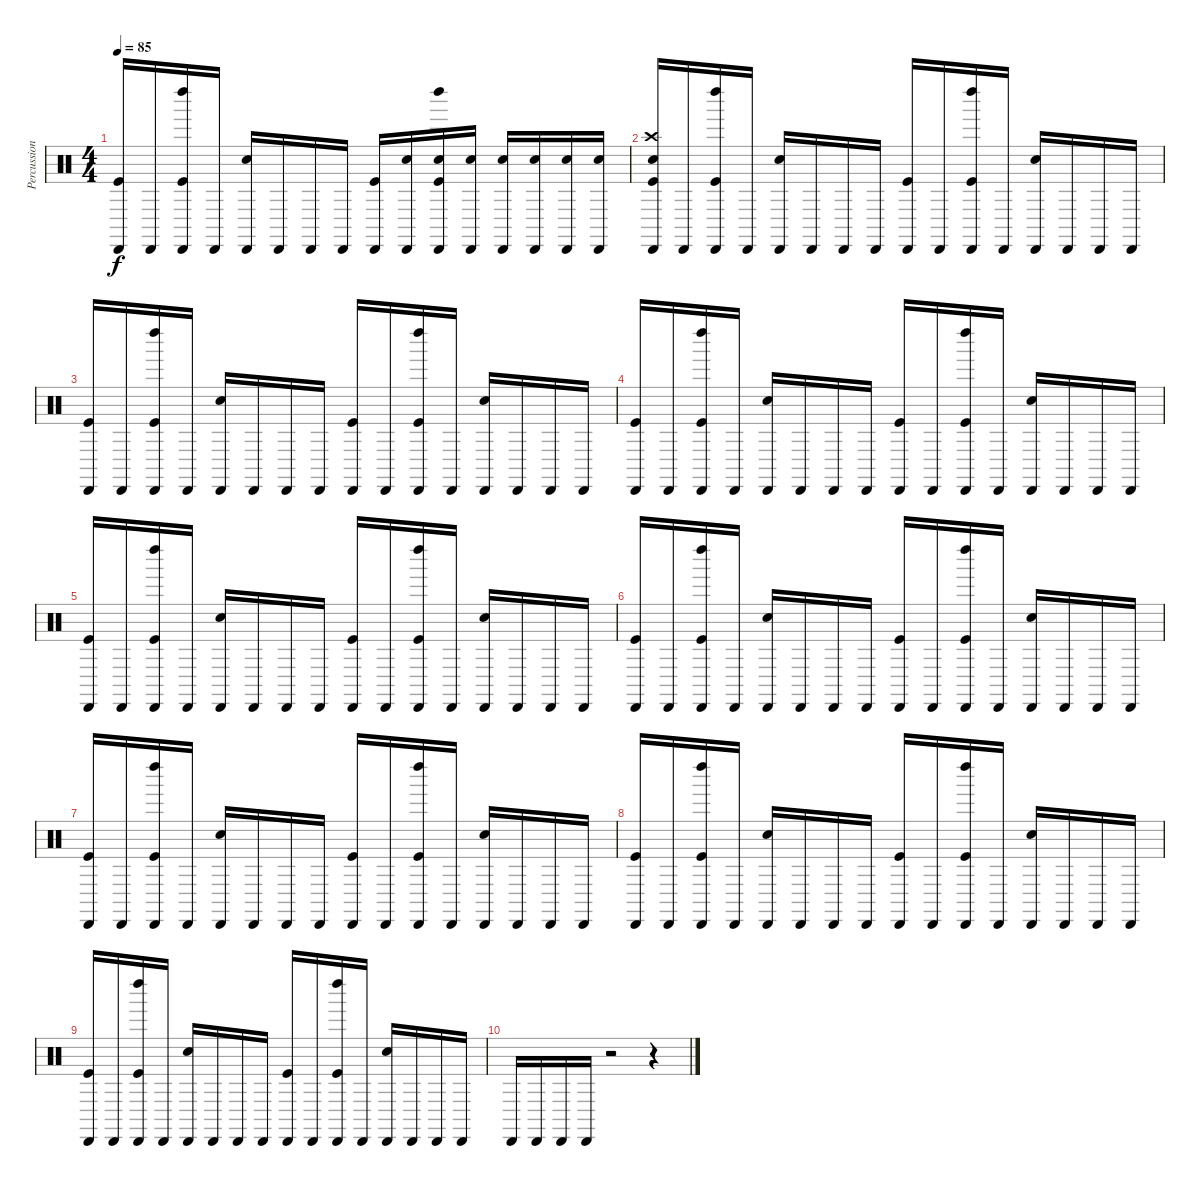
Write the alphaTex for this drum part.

\track ("Percussions" "Percussion") {instrument percussion}
\staff {score}
\articulation defaults
\ts (4 4)
\tempo 85
\clef neutral
\ks c
("Cabasa (hit)" "Kick (hit)").16{dy f} "Cabasa (hit)".16 ("Kick (hit)" "Cabasa (hit)" "Left Maraca (hit)").16 "Cabasa (hit)".16 ("Snare (hit) 2" "Cabasa (hit)").16 "Cabasa (hit)".16 "Cabasa (hit)".16 "Cabasa (hit)".16 ("Kick (hit)" "Cabasa (hit)").16 ("Cabasa (hit)" "Snare (hit) 2").16 ("Kick (hit)" "Cabasa (hit)" "Left Maraca (hit)" "Snare (hit) 2").16 ("Cabasa (hit)" "Snare (hit) 2").16 ("Cabasa (hit)" "Snare (hit) 2").16 ("Cabasa (hit)" "Snare (hit) 2").16 ("Cabasa (hit)" "Snare (hit) 2").16 ("Cabasa (hit)" "Snare (hit) 2").16 |
("Cabasa (hit)" "Kick (hit)" "Snare (hit) 2" "Crash high (hit)").16 "Cabasa (hit)".16 ("Kick (hit)" "Cabasa (hit)" "Left Maraca (hit)").16 "Cabasa (hit)".16 ("Snare (hit) 2" "Cabasa (hit)").16 "Cabasa (hit)".16 "Cabasa (hit)".16 "Cabasa (hit)".16 ("Kick (hit)" "Cabasa (hit)").16 "Cabasa (hit)".16 ("Kick (hit)" "Cabasa (hit)" "Left Maraca (hit)").16 "Cabasa (hit)".16 ("Snare (hit) 2" "Cabasa (hit)").16 "Cabasa (hit)".16 "Cabasa (hit)".16 "Cabasa (hit)".16 |
("Cabasa (hit)" "Kick (hit)").16 "Cabasa (hit)".16 ("Kick (hit)" "Cabasa (hit)" "Left Maraca (hit)").16 "Cabasa (hit)".16 ("Snare (hit) 2" "Cabasa (hit)").16 "Cabasa (hit)".16 "Cabasa (hit)".16 "Cabasa (hit)".16 ("Kick (hit)" "Cabasa (hit)").16 "Cabasa (hit)".16 ("Kick (hit)" "Cabasa (hit)" "Left Maraca (hit)").16 "Cabasa (hit)".16 ("Snare (hit) 2" "Cabasa (hit)").16 "Cabasa (hit)".16 "Cabasa (hit)".16 "Cabasa (hit)".16 |
("Cabasa (hit)" "Kick (hit)").16 "Cabasa (hit)".16 ("Kick (hit)" "Cabasa (hit)" "Left Maraca (hit)").16 "Cabasa (hit)".16 ("Snare (hit) 2" "Cabasa (hit)").16 "Cabasa (hit)".16 "Cabasa (hit)".16 "Cabasa (hit)".16 ("Kick (hit)" "Cabasa (hit)").16 "Cabasa (hit)".16 ("Kick (hit)" "Cabasa (hit)" "Left Maraca (hit)").16 "Cabasa (hit)".16 ("Snare (hit) 2" "Cabasa (hit)").16 "Cabasa (hit)".16 "Cabasa (hit)".16 "Cabasa (hit)".16 |
("Cabasa (hit)" "Kick (hit)").16 "Cabasa (hit)".16 ("Kick (hit)" "Cabasa (hit)" "Left Maraca (hit)").16 "Cabasa (hit)".16 ("Snare (hit) 2" "Cabasa (hit)").16 "Cabasa (hit)".16 "Cabasa (hit)".16 "Cabasa (hit)".16 ("Kick (hit)" "Cabasa (hit)").16 "Cabasa (hit)".16 ("Kick (hit)" "Cabasa (hit)" "Left Maraca (hit)").16 "Cabasa (hit)".16 ("Snare (hit) 2" "Cabasa (hit)").16 "Cabasa (hit)".16 "Cabasa (hit)".16 "Cabasa (hit)".16 |
("Cabasa (hit)" "Kick (hit)").16 "Cabasa (hit)".16 ("Kick (hit)" "Cabasa (hit)" "Left Maraca (hit)").16 "Cabasa (hit)".16 ("Snare (hit) 2" "Cabasa (hit)").16 "Cabasa (hit)".16 "Cabasa (hit)".16 "Cabasa (hit)".16 ("Kick (hit)" "Cabasa (hit)").16 "Cabasa (hit)".16 ("Kick (hit)" "Cabasa (hit)" "Left Maraca (hit)").16 "Cabasa (hit)".16 ("Snare (hit) 2" "Cabasa (hit)").16 "Cabasa (hit)".16 "Cabasa (hit)".16 "Cabasa (hit)".16 |
("Cabasa (hit)" "Kick (hit)").16 "Cabasa (hit)".16 ("Kick (hit)" "Cabasa (hit)" "Left Maraca (hit)").16 "Cabasa (hit)".16 ("Snare (hit) 2" "Cabasa (hit)").16 "Cabasa (hit)".16 "Cabasa (hit)".16 "Cabasa (hit)".16 ("Kick (hit)" "Cabasa (hit)").16 "Cabasa (hit)".16 ("Kick (hit)" "Cabasa (hit)" "Left Maraca (hit)").16 "Cabasa (hit)".16 ("Snare (hit) 2" "Cabasa (hit)").16 "Cabasa (hit)".16 "Cabasa (hit)".16 "Cabasa (hit)".16 |
("Cabasa (hit)" "Kick (hit)").16 "Cabasa (hit)".16 ("Kick (hit)" "Cabasa (hit)" "Left Maraca (hit)").16 "Cabasa (hit)".16 ("Snare (hit) 2" "Cabasa (hit)").16 "Cabasa (hit)".16 "Cabasa (hit)".16 "Cabasa (hit)".16 ("Kick (hit)" "Cabasa (hit)").16 "Cabasa (hit)".16 ("Kick (hit)" "Cabasa (hit)" "Left Maraca (hit)").16 "Cabasa (hit)".16 ("Snare (hit) 2" "Cabasa (hit)").16 "Cabasa (hit)".16 "Cabasa (hit)".16 "Cabasa (hit)".16 |
("Cabasa (hit)" "Kick (hit)").16 "Cabasa (hit)".16 ("Kick (hit)" "Cabasa (hit)" "Left Maraca (hit)").16 "Cabasa (hit)".16 ("Snare (hit) 2" "Cabasa (hit)").16 "Cabasa (hit)".16 "Cabasa (hit)".16 "Cabasa (hit)".16 ("Kick (hit)" "Cabasa (hit)").16 "Cabasa (hit)".16 ("Kick (hit)" "Cabasa (hit)" "Left Maraca (hit)").16 "Cabasa (hit)".16 ("Snare (hit) 2" "Cabasa (hit)").16 "Cabasa (hit)".16 "Cabasa (hit)".16 "Cabasa (hit)".16 |
"Cabasa (hit)".16 "Cabasa (hit)".16 "Cabasa (hit)".16 "Cabasa (hit)".16 r.2 r.4
